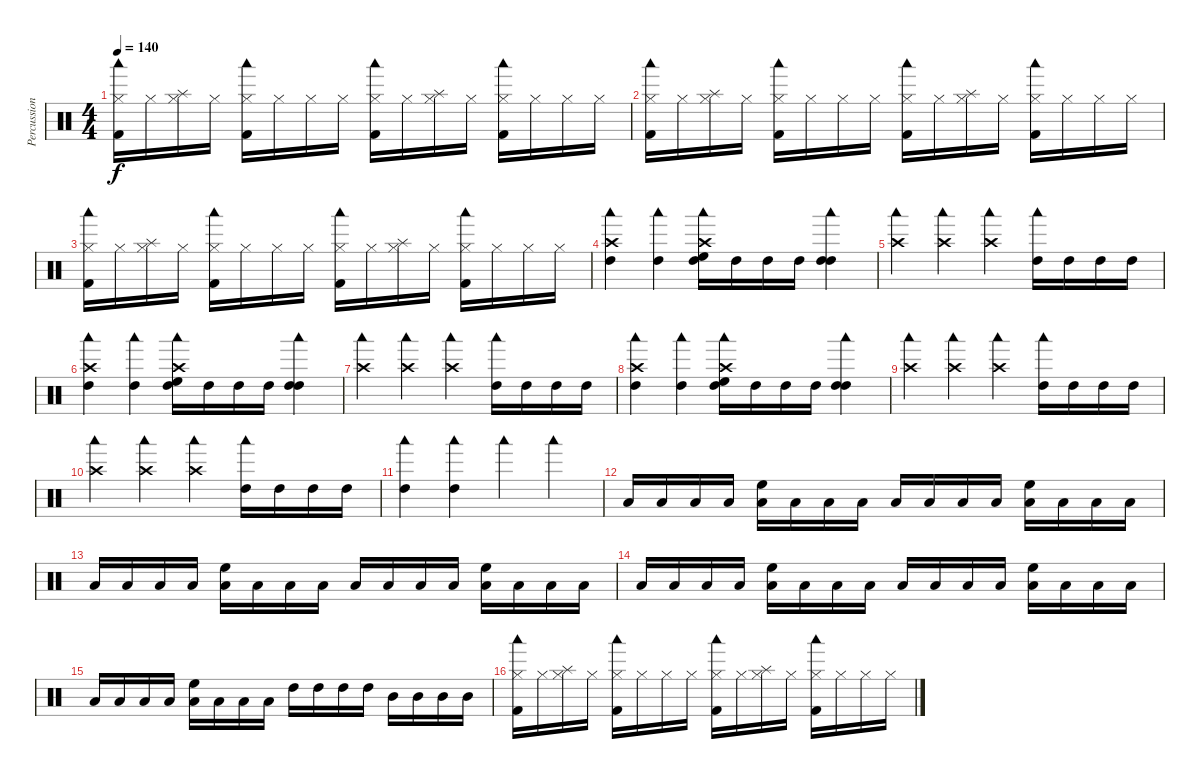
\track ("Percussion" "Percussion") {instrument percussion}
\staff {score}
\articulation defaults
\ts (4 4)
\tempo 140
\clef neutral
\ks c
("Woodblock low (hit)" "Hi-Hat (closed)" "Kick (hit) 2").16{dy f} "Hi-Hat (closed)".16 ("Splash (hit)" "Hi-Hat (closed)").16 "Hi-Hat (closed)".16 ("Woodblock low (hit)" "Hi-Hat (closed)" "Kick (hit) 2").16 "Hi-Hat (closed)".16 "Hi-Hat (closed)".16 "Hi-Hat (closed)".16 ("Woodblock low (hit)" "Hi-Hat (closed)" "Kick (hit) 2").16 "Hi-Hat (closed)".16 ("Splash (hit)" "Hi-Hat (closed)").16 "Hi-Hat (closed)".16 ("Woodblock low (hit)" "Hi-Hat (closed)" "Kick (hit) 2").16 "Hi-Hat (closed)".16 "Hi-Hat (closed)".16 "Hi-Hat (closed)".16 |
("Woodblock low (hit)" "Hi-Hat (closed)" "Kick (hit) 2").16 "Hi-Hat (closed)".16 ("Splash (hit)" "Hi-Hat (closed)").16 "Hi-Hat (closed)".16 ("Woodblock low (hit)" "Hi-Hat (closed)" "Kick (hit) 2").16 "Hi-Hat (closed)".16 "Hi-Hat (closed)".16 "Hi-Hat (closed)".16 ("Woodblock low (hit)" "Hi-Hat (closed)" "Kick (hit) 2").16 "Hi-Hat (closed)".16 ("Splash (hit)" "Hi-Hat (closed)").16 "Hi-Hat (closed)".16 ("Woodblock low (hit)" "Hi-Hat (closed)" "Kick (hit) 2").16 "Hi-Hat (closed)".16 "Hi-Hat (closed)".16 "Hi-Hat (closed)".16 |
("Woodblock low (hit)" "Hi-Hat (closed)" "Kick (hit) 2").16 "Hi-Hat (closed)".16 ("Splash (hit)" "Hi-Hat (closed)").16 "Hi-Hat (closed)".16 ("Woodblock low (hit)" "Hi-Hat (closed)" "Kick (hit) 2").16 "Hi-Hat (closed)".16 "Hi-Hat (closed)".16 "Hi-Hat (closed)".16 ("Woodblock low (hit)" "Hi-Hat (closed)" "Kick (hit) 2").16 "Hi-Hat (closed)".16 ("Splash (hit)" "Hi-Hat (closed)").16 "Hi-Hat (closed)".16 ("Woodblock low (hit)" "Hi-Hat (closed)" "Kick (hit) 2").16 "Hi-Hat (closed)".16 "Hi-Hat (closed)".16 "Hi-Hat (closed)".16 |
("Crash high (hit)" "Woodblock low (hit)" "High Tom (hit)").4 ("Woodblock low (hit)" "High Tom (hit)").4 ("Crash high (hit)" "Woodblock low (hit)" "High Floor Tom (hit)" "High Tom (hit)").16 "High Tom (hit)".16 "High Tom (hit)".16 "High Tom (hit)".16 ("Woodblock low (hit)" "High Tom (hit)" "High Tom (hit)").4 |
("Crash high (hit)" "Woodblock low (hit)").4 ("Crash high (hit)" "Woodblock low (hit)").4 ("Crash high (hit)" "Woodblock low (hit)").4 ("Woodblock low (hit)" "High Tom (hit)").16 "High Tom (hit)".16 "High Tom (hit)".16 "High Tom (hit)".16 |
("Crash high (hit)" "Woodblock low (hit)" "High Tom (hit)").4 ("Woodblock low (hit)" "High Tom (hit)").4 ("Crash high (hit)" "Woodblock low (hit)" "High Floor Tom (hit)" "High Tom (hit)").16 "High Tom (hit)".16 "High Tom (hit)".16 "High Tom (hit)".16 ("Woodblock low (hit)" "High Tom (hit)" "High Tom (hit)").4 |
("Crash high (hit)" "Woodblock low (hit)").4 ("Crash high (hit)" "Woodblock low (hit)").4 ("Crash high (hit)" "Woodblock low (hit)").4 ("Woodblock low (hit)" "High Tom (hit)").16 "High Tom (hit)".16 "High Tom (hit)".16 "High Tom (hit)".16 |
("Crash high (hit)" "Woodblock low (hit)" "High Tom (hit)").4 ("Woodblock low (hit)" "High Tom (hit)").4 ("Crash high (hit)" "Woodblock low (hit)" "High Floor Tom (hit)" "High Tom (hit)").16 "High Tom (hit)".16 "High Tom (hit)".16 "High Tom (hit)".16 ("Woodblock low (hit)" "High Tom (hit)" "High Tom (hit)").4 |
("Crash high (hit)" "Woodblock low (hit)").4 ("Crash high (hit)" "Woodblock low (hit)").4 ("Crash high (hit)" "Woodblock low (hit)").4 ("Woodblock low (hit)" "High Tom (hit)").16 "High Tom (hit)".16 "High Tom (hit)".16 "High Tom (hit)".16 |
("Crash high (hit)" "Woodblock low (hit)").4 ("Crash high (hit)" "Woodblock low (hit)").4 ("Crash high (hit)" "Woodblock low (hit)").4 ("Woodblock low (hit)" "High Tom (hit)").16 "High Tom (hit)".16 "High Tom (hit)".16 "High Tom (hit)".16 |
("Woodblock low (hit)" "High Tom (hit)").4 ("Woodblock low (hit)" "High Tom (hit)").4 "Woodblock low (hit)".4 "Woodblock low (hit)".4 |
"Low Tom (hit)".16 "Low Tom (hit)".16 "Low Tom (hit)".16 "Low Tom (hit)".16 ("High Floor Tom (hit)" "Low Tom (hit)").16 "Low Tom (hit)".16 "Low Tom (hit)".16 "Low Tom (hit)".16 "Low Tom (hit)".16 "Low Tom (hit)".16 "Low Tom (hit)".16 "Low Tom (hit)".16 ("High Floor Tom (hit)" "Low Tom (hit)").16 "Low Tom (hit)".16 "Low Tom (hit)".16 "Low Tom (hit)".16 |
"Low Tom (hit)".16 "Low Tom (hit)".16 "Low Tom (hit)".16 "Low Tom (hit)".16 ("High Floor Tom (hit)" "Low Tom (hit)").16 "Low Tom (hit)".16 "Low Tom (hit)".16 "Low Tom (hit)".16 "Low Tom (hit)".16 "Low Tom (hit)".16 "Low Tom (hit)".16 "Low Tom (hit)".16 ("High Floor Tom (hit)" "Low Tom (hit)").16 "Low Tom (hit)".16 "Low Tom (hit)".16 "Low Tom (hit)".16 |
"Low Tom (hit)".16 "Low Tom (hit)".16 "Low Tom (hit)".16 "Low Tom (hit)".16 ("High Floor Tom (hit)" "Low Tom (hit)").16 "Low Tom (hit)".16 "Low Tom (hit)".16 "Low Tom (hit)".16 "Low Tom (hit)".16 "Low Tom (hit)".16 "Low Tom (hit)".16 "Low Tom (hit)".16 ("High Floor Tom (hit)" "Low Tom (hit)").16 "Low Tom (hit)".16 "Low Tom (hit)".16 "Low Tom (hit)".16 |
"Low Tom (hit)".16 "Low Tom (hit)".16 "Low Tom (hit)".16 "Low Tom (hit)".16 ("High Floor Tom (hit)" "Low Tom (hit)").16 "Low Tom (hit)".16 "Low Tom (hit)".16 "Low Tom (hit)".16 "High Tom (hit)".16 "High Tom (hit)".16 "High Tom (hit)".16 "High Tom (hit)".16 "Mid Tom (hit)".16 "Mid Tom (hit)".16 "Mid Tom (hit)".16 "Mid Tom (hit)".16 |
("Woodblock low (hit)" "Hi-Hat (closed)" "Kick (hit) 2").16 "Hi-Hat (closed)".16 ("Splash (hit)" "Hi-Hat (closed)").16 "Hi-Hat (closed)".16 ("Woodblock low (hit)" "Hi-Hat (closed)" "Kick (hit) 2").16 "Hi-Hat (closed)".16 "Hi-Hat (closed)".16 "Hi-Hat (closed)".16 ("Woodblock low (hit)" "Hi-Hat (closed)" "Kick (hit) 2").16 "Hi-Hat (closed)".16 ("Splash (hit)" "Hi-Hat (closed)").16 "Hi-Hat (closed)".16 ("Woodblock low (hit)" "Hi-Hat (closed)" "Kick (hit) 2").16 "Hi-Hat (closed)".16 "Hi-Hat (closed)".16 "Hi-Hat (closed)".16
